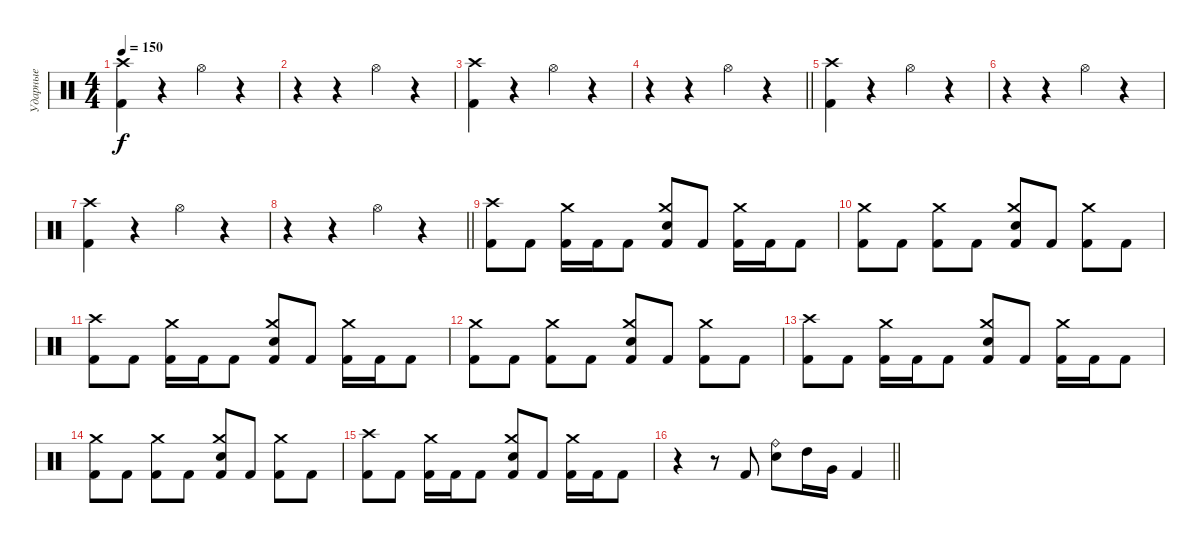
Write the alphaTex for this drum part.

\track ("Ударные" "Ударные") {instrument percussion}
\staff {score}
\articulation defaults
\ts (4 4)
\tempo 150
\clef neutral
\ks c
("Crash high (hit)" "Kick (hit) 2").4{dy f} r.4 "Hi-Hat (open)".4 r.4 |
r.4 r.4 "Hi-Hat (open)".4 r.4 |
("Crash high (hit)" "Kick (hit) 2").4 r.4 "Hi-Hat (open)".4 r.4 |
\barLineRight lightlight
r.4 r.4 "Hi-Hat (open)".4 r.4 |
("Crash high (hit)" "Kick (hit) 2").4 r.4 "Hi-Hat (open)".4 r.4 |
r.4 r.4 "Hi-Hat (open)".4 r.4 |
("Crash high (hit)" "Kick (hit) 2").4 r.4 "Hi-Hat (open)".4 r.4 |
\barLineRight lightlight
r.4 r.4 "Hi-Hat (open)".4 r.4 |
("Crash high (hit)" "Kick (hit) 2").8 "Kick (hit) 2".8 ("Crash medium (hit)" "Kick (hit) 2").16 "Kick (hit) 2".16 "Kick (hit) 2".8 ("Crash medium (hit)" "Electric Snare (hit)" "Kick (hit) 2").8 "Kick (hit) 2".8 ("Crash medium (hit)" "Kick (hit) 2").16 "Kick (hit) 2".16 "Kick (hit) 2".8 |
("Crash medium (hit)" "Kick (hit) 2").8 "Kick (hit) 2".8 ("Crash medium (hit)" "Kick (hit) 2").8 "Kick (hit) 2".8 ("Crash medium (hit)" "Electric Snare (hit)" "Kick (hit) 2").8 "Kick (hit) 2".8 ("Crash medium (hit)" "Kick (hit) 2").8 "Kick (hit) 2".8 |
("Crash high (hit)" "Kick (hit) 2").8 "Kick (hit) 2".8 ("Crash medium (hit)" "Kick (hit) 2").16 "Kick (hit) 2".16 "Kick (hit) 2".8 ("Crash medium (hit)" "Electric Snare (hit)" "Kick (hit) 2").8 "Kick (hit) 2".8 ("Crash medium (hit)" "Kick (hit) 2").16 "Kick (hit) 2".16 "Kick (hit) 2".8 |
("Crash medium (hit)" "Kick (hit) 2").8 "Kick (hit) 2".8 ("Crash medium (hit)" "Kick (hit) 2").8 "Kick (hit) 2".8 ("Crash medium (hit)" "Electric Snare (hit)" "Kick (hit) 2").8 "Kick (hit) 2".8 ("Crash medium (hit)" "Kick (hit) 2").8 "Kick (hit) 2".8 |
("Crash high (hit)" "Kick (hit) 2").8 "Kick (hit) 2".8 ("Crash medium (hit)" "Kick (hit) 2").16 "Kick (hit) 2".16 "Kick (hit) 2".8 ("Crash medium (hit)" "Electric Snare (hit)" "Kick (hit) 2").8 "Kick (hit) 2".8 ("Crash medium (hit)" "Kick (hit) 2").16 "Kick (hit) 2".16 "Kick (hit) 2".8 |
("Crash medium (hit)" "Kick (hit) 2").8 "Kick (hit) 2".8 ("Crash medium (hit)" "Kick (hit) 2").8 "Kick (hit) 2".8 ("Crash medium (hit)" "Electric Snare (hit)" "Kick (hit) 2").8 "Kick (hit) 2".8 ("Crash medium (hit)" "Kick (hit) 2").8 "Kick (hit) 2".8 |
("Crash high (hit)" "Kick (hit) 2").8 "Kick (hit) 2".8 ("Crash medium (hit)" "Kick (hit) 2").16 "Kick (hit) 2".16 "Kick (hit) 2".8 ("Crash medium (hit)" "Electric Snare (hit)" "Kick (hit) 2").8 "Kick (hit) 2".8 ("Crash medium (hit)" "Kick (hit) 2").16 "Kick (hit) 2".16 "Kick (hit) 2".8 |
\barLineRight lightlight
r.4 r.8 "Kick (hit) 2".8 ("Ride (bell)" "Electric Snare (hit)").8 "High Tom (hit)".16 "Very Low Tom (hit)".16 "Kick (hit) 2".4
